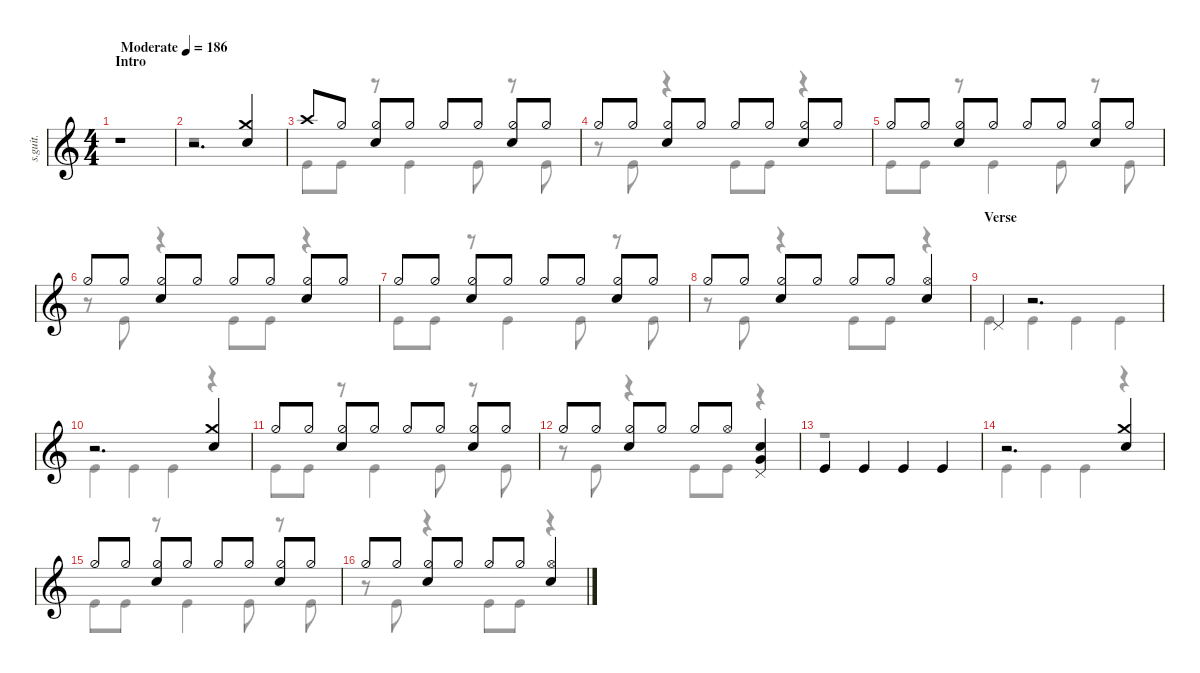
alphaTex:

\defaultSystemsLayout 4
\hideDynamics
\bracketExtendMode nobrackets
\track ("Tre Cool" "s.guit.") {instrument percussion}
\staff {score}
\articulation defaults
\voice
\ts (4 4)
\beaming (8 2 2 2 2)
\section ("" "Intro")
\tempo (186 "Moderate")
\clef g2
\ks c
r.1{dy f} |
r.2{d} ("Snare (hit) 2" "Crash medium (hit)").4 |
"Crash high (hit)".8 "Hi-Hat (half)".8 ("Hi-Hat (half)" "Snare (hit) 2").8 "Hi-Hat (half)".8 "Hi-Hat (half)".8 "Hi-Hat (half)".8 ("Hi-Hat (half)" "Snare (hit) 2").8 "Hi-Hat (half)".8 |
"Hi-Hat (half)".8 "Hi-Hat (half)".8 ("Hi-Hat (half)" "Snare (hit) 2").8 "Hi-Hat (half)".8 "Hi-Hat (half)".8 "Hi-Hat (half)".8 ("Hi-Hat (half)" "Snare (hit) 2").8 "Hi-Hat (half)".8 |
"Hi-Hat (half)".8 "Hi-Hat (half)".8 ("Hi-Hat (half)" "Snare (hit) 2").8 "Hi-Hat (half)".8 "Hi-Hat (half)".8 "Hi-Hat (half)".8 ("Hi-Hat (half)" "Snare (hit) 2").8 "Hi-Hat (half)".8 |
"Hi-Hat (half)".8 "Hi-Hat (half)".8 ("Hi-Hat (half)" "Snare (hit) 2").8 "Hi-Hat (half)".8 "Hi-Hat (half)".8 "Hi-Hat (half)".8 ("Hi-Hat (half)" "Snare (hit) 2").8 "Hi-Hat (half)".8 |
"Hi-Hat (half)".8 "Hi-Hat (half)".8 ("Hi-Hat (half)" "Snare (hit) 2").8 "Hi-Hat (half)".8 "Hi-Hat (half)".8 "Hi-Hat (half)".8 ("Hi-Hat (half)" "Snare (hit) 2").8 "Hi-Hat (half)".8 |
"Hi-Hat (half)".8 "Hi-Hat (half)".8 ("Hi-Hat (half)" "Snare (hit) 2").8 "Hi-Hat (half)".8 "Hi-Hat (half)".8 "Hi-Hat (half)".8 ("Hi-Hat (open)" "Snare (hit) 2").4 |
\section ("" "Verse")
"Pedal Hi-Hat (hit)".4 r.2{d} |
r.2{d} ("Snare (hit) 2" "Crash medium (hit)").4 |
"Hi-Hat (half)".8 "Hi-Hat (half)".8 ("Hi-Hat (half)" "Snare (hit) 2").8 "Hi-Hat (half)".8 "Hi-Hat (half)".8 "Hi-Hat (half)".8 ("Hi-Hat (half)" "Snare (hit) 2").8 "Hi-Hat (half)".8 |
"Hi-Hat (half)".8 "Hi-Hat (half)".8 ("Hi-Hat (half)" "Snare (hit) 2").8 "Hi-Hat (half)".8 "Hi-Hat (half)".8 "Hi-Hat (open)".8 ("Snare (hit) 2" "Very Low Tom (hit)" "Pedal Hi-Hat (hit)").4 |
"Kick (hit)".4 "Kick (hit)".4 "Kick (hit)".4 "Kick (hit)".4 |
r.2{d} ("Snare (hit) 2" "Crash medium (hit)").4 |
"Hi-Hat (half)".8 "Hi-Hat (half)".8 ("Hi-Hat (half)" "Snare (hit) 2").8 "Hi-Hat (half)".8 "Hi-Hat (half)".8 "Hi-Hat (half)".8 ("Hi-Hat (half)" "Snare (hit) 2").8 "Hi-Hat (half)".8 |
"Hi-Hat (half)".8 "Hi-Hat (half)".8 ("Hi-Hat (half)" "Snare (hit) 2").8 "Hi-Hat (half)".8 "Hi-Hat (half)".8 "Hi-Hat (half)".8 ("Hi-Hat (open)" "Snare (hit) 2").4
\voice
\clef g2
\ottava regular
\simile none
\ks c
r.1{dy f} |
r.1 |
"Kick (hit)".8 "Kick (hit)".8 r.8 "Kick (hit)".4 "Kick (hit)".8 r.8 "Kick (hit)".8 |
r.8 "Kick (hit)".8 r.4 "Kick (hit)".8 "Kick (hit)".8 r.4 |
"Kick (hit)".8 "Kick (hit)".8 r.8 "Kick (hit)".4 "Kick (hit)".8 r.8 "Kick (hit)".8 |
r.8 "Kick (hit)".8 r.4 "Kick (hit)".8 "Kick (hit)".8 r.4 |
"Kick (hit)".8 "Kick (hit)".8 r.8 "Kick (hit)".4 "Kick (hit)".8 r.8 "Kick (hit)".8 |
r.8 "Kick (hit)".8 r.4 "Kick (hit)".8 "Kick (hit)".8 r.4 |
"Kick (hit)".4 "Kick (hit)".4 "Kick (hit)".4 "Kick (hit)".4 |
"Kick (hit)".4 "Kick (hit)".4 "Kick (hit)".4 r.4 |
"Kick (hit)".8 "Kick (hit)".8 r.8 "Kick (hit)".4 "Kick (hit)".8 r.8 "Kick (hit)".8 |
r.8 "Kick (hit)".8 r.4 "Kick (hit)".8 "Kick (hit)".8 r.4 |
r.1 |
"Kick (hit)".4 "Kick (hit)".4 "Kick (hit)".4 r.4 |
"Kick (hit)".8 "Kick (hit)".8 r.8 "Kick (hit)".4 "Kick (hit)".8 r.8 "Kick (hit)".8 |
r.8 "Kick (hit)".8 r.4 "Kick (hit)".8 "Kick (hit)".8 r.4
